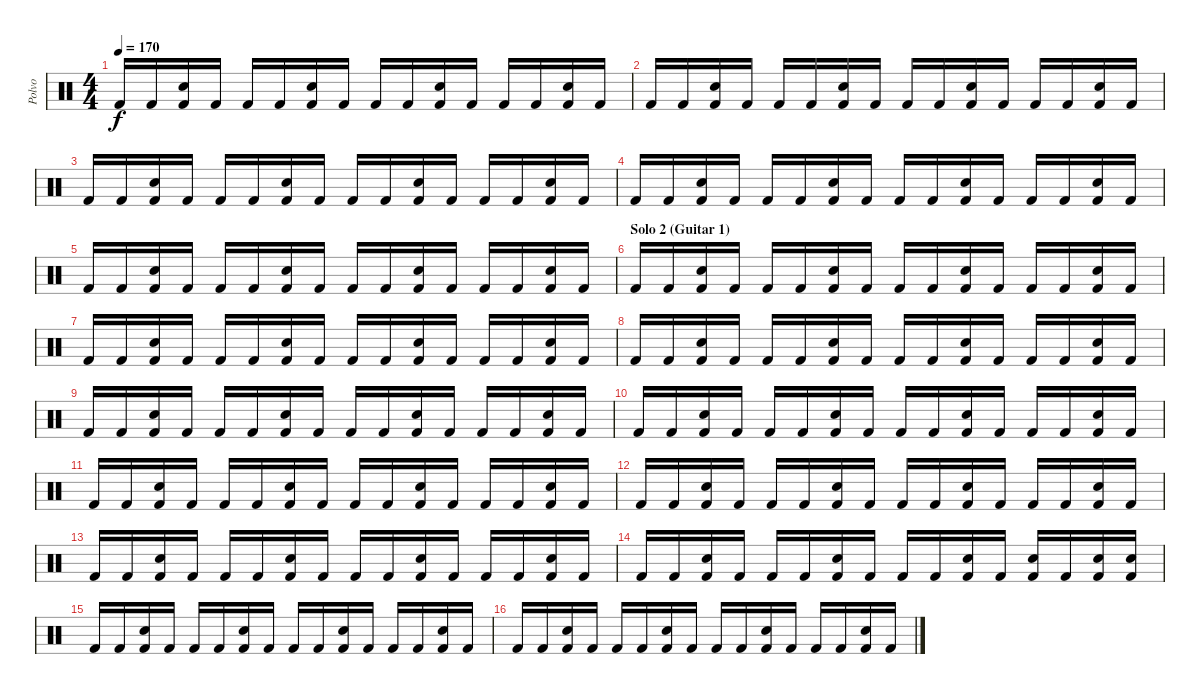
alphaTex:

\track ("Polvo" "Polvo") {instrument percussion}
\staff {score}
\articulation defaults
\ts (4 4)
\tempo 170
\clef neutral
\ks c "Kick (hit) 2".16{dy f} "Kick (hit) 2".16
("Electric Snare (hit)" "Kick (hit) 2").16 "Kick (hit) 2".16 "Kick (hit) 2".16 "Kick (hit) 2".16 ("Electric Snare (hit)" "Kick (hit) 2").16 "Kick (hit) 2".16 "Kick (hit) 2".16 "Kick (hit) 2".16 ("Electric Snare (hit)" "Kick (hit) 2").16 "Kick (hit) 2".16 "Kick (hit) 2".16 "Kick (hit) 2".16 ("Electric Snare (hit)" "Kick (hit) 2").16 "Kick (hit) 2".16 |
"Kick (hit) 2".16 "Kick (hit) 2".16 ("Electric Snare (hit)" "Kick (hit) 2").16 "Kick (hit) 2".16 "Kick (hit) 2".16 "Kick (hit) 2".16 ("Electric Snare (hit)" "Kick (hit) 2").16 "Kick (hit) 2".16 "Kick (hit) 2".16 "Kick (hit) 2".16 ("Electric Snare (hit)" "Kick (hit) 2").16 "Kick (hit) 2".16 "Kick (hit) 2".16 "Kick (hit) 2".16 ("Electric Snare (hit)" "Kick (hit) 2").16 "Kick (hit) 2".16 |
"Kick (hit) 2".16 "Kick (hit) 2".16 ("Electric Snare (hit)" "Kick (hit) 2").16 "Kick (hit) 2".16 "Kick (hit) 2".16 "Kick (hit) 2".16 ("Electric Snare (hit)" "Kick (hit) 2").16 "Kick (hit) 2".16 "Kick (hit) 2".16 "Kick (hit) 2".16 ("Electric Snare (hit)" "Kick (hit) 2").16 "Kick (hit) 2".16 "Kick (hit) 2".16 "Kick (hit) 2".16 ("Electric Snare (hit)" "Kick (hit) 2").16 "Kick (hit) 2".16 |
"Kick (hit) 2".16 "Kick (hit) 2".16 ("Electric Snare (hit)" "Kick (hit) 2").16 "Kick (hit) 2".16 "Kick (hit) 2".16 "Kick (hit) 2".16 ("Electric Snare (hit)" "Kick (hit) 2").16 "Kick (hit) 2".16 "Kick (hit) 2".16 "Kick (hit) 2".16 ("Electric Snare (hit)" "Kick (hit) 2").16 "Kick (hit) 2".16 "Kick (hit) 2".16 "Kick (hit) 2".16 ("Electric Snare (hit)" "Kick (hit) 2").16 "Kick (hit) 2".16 |
"Kick (hit) 2".16 "Kick (hit) 2".16 ("Electric Snare (hit)" "Kick (hit) 2").16 "Kick (hit) 2".16 "Kick (hit) 2".16 "Kick (hit) 2".16 ("Electric Snare (hit)" "Kick (hit) 2").16 "Kick (hit) 2".16 "Kick (hit) 2".16 "Kick (hit) 2".16 ("Electric Snare (hit)" "Kick (hit) 2").16 "Kick (hit) 2".16 "Kick (hit) 2".16 "Kick (hit) 2".16 ("Electric Snare (hit)" "Kick (hit) 2").16 "Kick (hit) 2".16 |
\section ("" "Solo 2 (Guitar 1)")
"Kick (hit) 2".16 "Kick (hit) 2".16 ("Electric Snare (hit)" "Kick (hit) 2").16 "Kick (hit) 2".16 "Kick (hit) 2".16 "Kick (hit) 2".16 ("Electric Snare (hit)" "Kick (hit) 2").16 "Kick (hit) 2".16 "Kick (hit) 2".16 "Kick (hit) 2".16 ("Electric Snare (hit)" "Kick (hit) 2").16 "Kick (hit) 2".16 "Kick (hit) 2".16 "Kick (hit) 2".16 ("Electric Snare (hit)" "Kick (hit) 2").16 "Kick (hit) 2".16 |
"Kick (hit) 2".16 "Kick (hit) 2".16 ("Electric Snare (hit)" "Kick (hit) 2").16 "Kick (hit) 2".16 "Kick (hit) 2".16 "Kick (hit) 2".16 ("Electric Snare (hit)" "Kick (hit) 2").16 "Kick (hit) 2".16 "Kick (hit) 2".16 "Kick (hit) 2".16 ("Electric Snare (hit)" "Kick (hit) 2").16 "Kick (hit) 2".16 "Kick (hit) 2".16 "Kick (hit) 2".16 ("Electric Snare (hit)" "Kick (hit) 2").16 "Kick (hit) 2".16 |
"Kick (hit) 2".16 "Kick (hit) 2".16 ("Electric Snare (hit)" "Kick (hit) 2").16 "Kick (hit) 2".16 "Kick (hit) 2".16 "Kick (hit) 2".16 ("Electric Snare (hit)" "Kick (hit) 2").16 "Kick (hit) 2".16 "Kick (hit) 2".16 "Kick (hit) 2".16 ("Electric Snare (hit)" "Kick (hit) 2").16 "Kick (hit) 2".16 "Kick (hit) 2".16 "Kick (hit) 2".16 ("Electric Snare (hit)" "Kick (hit) 2").16 "Kick (hit) 2".16 |
"Kick (hit) 2".16 "Kick (hit) 2".16 ("Electric Snare (hit)" "Kick (hit) 2").16 "Kick (hit) 2".16 "Kick (hit) 2".16 "Kick (hit) 2".16 ("Electric Snare (hit)" "Kick (hit) 2").16 "Kick (hit) 2".16 "Kick (hit) 2".16 "Kick (hit) 2".16 ("Electric Snare (hit)" "Kick (hit) 2").16 "Kick (hit) 2".16 "Kick (hit) 2".16 "Kick (hit) 2".16 ("Electric Snare (hit)" "Kick (hit) 2").16 "Kick (hit) 2".16 |
"Kick (hit) 2".16 "Kick (hit) 2".16 ("Electric Snare (hit)" "Kick (hit) 2").16 "Kick (hit) 2".16 "Kick (hit) 2".16 "Kick (hit) 2".16 ("Electric Snare (hit)" "Kick (hit) 2").16 "Kick (hit) 2".16 "Kick (hit) 2".16 "Kick (hit) 2".16 ("Electric Snare (hit)" "Kick (hit) 2").16 "Kick (hit) 2".16 "Kick (hit) 2".16 "Kick (hit) 2".16 ("Electric Snare (hit)" "Kick (hit) 2").16 "Kick (hit) 2".16 |
"Kick (hit) 2".16 "Kick (hit) 2".16 ("Electric Snare (hit)" "Kick (hit) 2").16 "Kick (hit) 2".16 "Kick (hit) 2".16 "Kick (hit) 2".16 ("Electric Snare (hit)" "Kick (hit) 2").16 "Kick (hit) 2".16 "Kick (hit) 2".16 "Kick (hit) 2".16 ("Electric Snare (hit)" "Kick (hit) 2").16 "Kick (hit) 2".16 "Kick (hit) 2".16 "Kick (hit) 2".16 ("Electric Snare (hit)" "Kick (hit) 2").16 "Kick (hit) 2".16 |
"Kick (hit) 2".16 "Kick (hit) 2".16 ("Electric Snare (hit)" "Kick (hit) 2").16 "Kick (hit) 2".16 "Kick (hit) 2".16 "Kick (hit) 2".16 ("Electric Snare (hit)" "Kick (hit) 2").16 "Kick (hit) 2".16 "Kick (hit) 2".16 "Kick (hit) 2".16 ("Electric Snare (hit)" "Kick (hit) 2").16 "Kick (hit) 2".16 "Kick (hit) 2".16 "Kick (hit) 2".16 ("Electric Snare (hit)" "Kick (hit) 2").16 "Kick (hit) 2".16 |
"Kick (hit) 2".16 "Kick (hit) 2".16 ("Electric Snare (hit)" "Kick (hit) 2").16 "Kick (hit) 2".16 "Kick (hit) 2".16 "Kick (hit) 2".16 ("Electric Snare (hit)" "Kick (hit) 2").16 "Kick (hit) 2".16 "Kick (hit) 2".16 "Kick (hit) 2".16 ("Electric Snare (hit)" "Kick (hit) 2").16 "Kick (hit) 2".16 "Kick (hit) 2".16 "Kick (hit) 2".16 ("Electric Snare (hit)" "Kick (hit) 2").16 "Kick (hit) 2".16 |
"Kick (hit) 2".16 "Kick (hit) 2".16 ("Electric Snare (hit)" "Kick (hit) 2").16 "Kick (hit) 2".16 "Kick (hit) 2".16 "Kick (hit) 2".16 ("Electric Snare (hit)" "Kick (hit) 2").16 "Kick (hit) 2".16 "Kick (hit) 2".16 "Kick (hit) 2".16 ("Electric Snare (hit)" "Kick (hit) 2").16 "Kick (hit) 2".16 ("Electric Snare (hit)" "Kick (hit) 2").16 "Kick (hit) 2".16 ("Electric Snare (hit)" "Kick (hit) 2").16 ("Electric Snare (hit)" "Kick (hit) 2").16 |
"Kick (hit) 2".16 "Kick (hit) 2".16 ("Electric Snare (hit)" "Kick (hit) 2").16 "Kick (hit) 2".16 "Kick (hit) 2".16 "Kick (hit) 2".16 ("Electric Snare (hit)" "Kick (hit) 2").16 "Kick (hit) 2".16 "Kick (hit) 2".16 "Kick (hit) 2".16 ("Electric Snare (hit)" "Kick (hit) 2").16 "Kick (hit) 2".16 "Kick (hit) 2".16 "Kick (hit) 2".16 ("Electric Snare (hit)" "Kick (hit) 2").16 "Kick (hit) 2".16 |
"Kick (hit) 2".16 "Kick (hit) 2".16 ("Electric Snare (hit)" "Kick (hit) 2").16 "Kick (hit) 2".16 "Kick (hit) 2".16 "Kick (hit) 2".16 ("Electric Snare (hit)" "Kick (hit) 2").16 "Kick (hit) 2".16 "Kick (hit) 2".16 "Kick (hit) 2".16 ("Electric Snare (hit)" "Kick (hit) 2").16 "Kick (hit) 2".16 "Kick (hit) 2".16 "Kick (hit) 2".16 ("Electric Snare (hit)" "Kick (hit) 2").16 "Kick (hit) 2".16
